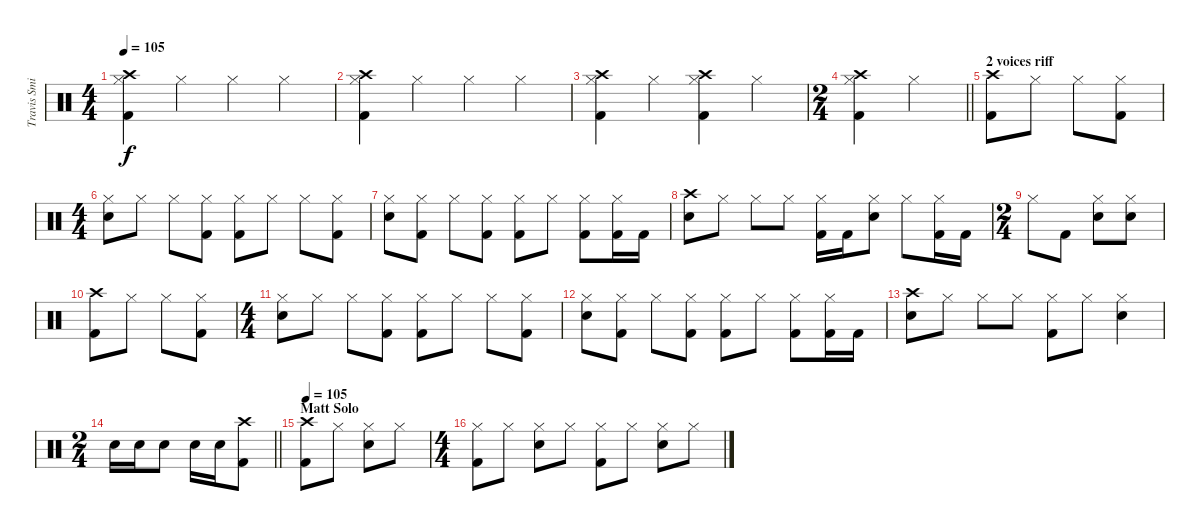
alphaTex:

\track ("Travis Smith (Drums)" "Travis Smi") {instrument percussion}
\staff {score}
\articulation defaults
\ts (4 4)
\tempo 105
\clef neutral
\ks c
("Crash high (hit)" "Kick (hit) 2" "Hi-Hat (closed)").4{dy f} "Hi-Hat (closed)".4 "Hi-Hat (closed)".4 "Hi-Hat (closed)".4 |
("Crash high (hit)" "Kick (hit) 2" "Hi-Hat (closed)").4 "Hi-Hat (closed)".4 "Hi-Hat (closed)".4 "Hi-Hat (closed)".4 |
("Crash high (hit)" "Kick (hit) 2" "Hi-Hat (closed)").4 "Hi-Hat (closed)".4 ("Crash high (hit)" "Kick (hit) 2" "Hi-Hat (closed)").4 "Hi-Hat (closed)".4 |
\ts (2 4)
\barLineRight lightlight
("Crash high (hit)" "Kick (hit) 2" "Hi-Hat (closed)").4 "Hi-Hat (closed)".4 |
\section ("" "2 voices riff")
("Crash high (hit)" "Kick (hit) 2").8 "Hi-Hat (closed)".8 "Hi-Hat (closed)".8 ("Hi-Hat (closed)" "Kick (hit) 2").8 |
\ts (4 4)
("Hi-Hat (closed)" "Electric Snare (hit)").8 "Hi-Hat (closed)".8 "Hi-Hat (closed)".8 ("Hi-Hat (closed)" "Kick (hit) 2").8 ("Hi-Hat (closed)" "Kick (hit) 2").8 "Hi-Hat (closed)".8 "Hi-Hat (closed)".8 ("Hi-Hat (closed)" "Kick (hit) 2").8 |
("Hi-Hat (closed)" "Electric Snare (hit)").8 ("Hi-Hat (closed)" "Kick (hit) 2").8 "Hi-Hat (closed)".8 ("Hi-Hat (closed)" "Kick (hit) 2").8 ("Hi-Hat (closed)" "Kick (hit) 2").8 "Hi-Hat (closed)".8 ("Hi-Hat (closed)" "Kick (hit) 2").8 ("Hi-Hat (closed)" "Kick (hit) 2").16 "Kick (hit) 2".16 |
("Crash high (hit)" "Electric Snare (hit)").8 "Hi-Hat (closed)".8 "Hi-Hat (closed)".8 "Hi-Hat (closed)".8 ("Hi-Hat (closed)" "Kick (hit) 2").16 "Kick (hit) 2".16 ("Hi-Hat (closed)" "Electric Snare (hit)").8 "Hi-Hat (closed)".8 ("Hi-Hat (closed)" "Kick (hit) 2").16 "Kick (hit) 2".16 |
\ts (2 4)
"Hi-Hat (closed)".8 "Kick (hit) 2".8 ("Hi-Hat (closed)" "Electric Snare (hit)").8 ("Hi-Hat (closed)" "Electric Snare (hit)").8 |
("Crash high (hit)" "Kick (hit) 2").8 "Hi-Hat (closed)".8 "Hi-Hat (closed)".8 ("Hi-Hat (closed)" "Kick (hit) 2").8 |
\ts (4 4)
("Hi-Hat (closed)" "Electric Snare (hit)").8 "Hi-Hat (closed)".8 "Hi-Hat (closed)".8 ("Hi-Hat (closed)" "Kick (hit) 2").8 ("Hi-Hat (closed)" "Kick (hit) 2").8 "Hi-Hat (closed)".8 "Hi-Hat (closed)".8 ("Hi-Hat (closed)" "Kick (hit) 2").8 |
("Hi-Hat (closed)" "Electric Snare (hit)").8 ("Hi-Hat (closed)" "Kick (hit) 2").8 "Hi-Hat (closed)".8 ("Hi-Hat (closed)" "Kick (hit) 2").8 ("Hi-Hat (closed)" "Kick (hit) 2").8 "Hi-Hat (closed)".8 ("Hi-Hat (closed)" "Kick (hit) 2").8 ("Hi-Hat (closed)" "Kick (hit) 2").16 "Kick (hit) 2".16 |
("Crash high (hit)" "Electric Snare (hit)").8 "Hi-Hat (closed)".8 "Hi-Hat (closed)".8 "Hi-Hat (closed)".8 ("Hi-Hat (closed)" "Kick (hit) 2").8 "Hi-Hat (closed)".8 ("Hi-Hat (closed)" "Electric Snare (hit)").4 |
\ts (2 4)
\barLineRight lightlight "Electric Snare (hit)".16 "Electric Snare (hit)".16 "Electric Snare (hit)".8 "Electric Snare (hit)".16 "Electric Snare (hit)".16
("Crash high (hit)" "Kick (hit) 2").8 |
\section ("" "Matt Solo")
\tempo 105
("Crash high (hit)" "Kick (hit) 2").8 "Hi-Hat (closed)".8 ("Hi-Hat (closed)" "Electric Snare (hit)").8 "Hi-Hat (closed)".8 |
\ts (4 4)
("Hi-Hat (closed)" "Kick (hit) 2").8 "Hi-Hat (closed)".8 ("Hi-Hat (closed)" "Electric Snare (hit)").8 "Hi-Hat (closed)".8 ("Hi-Hat (closed)" "Kick (hit) 2").8 "Hi-Hat (closed)".8 ("Hi-Hat (closed)" "Electric Snare (hit)").8 "Hi-Hat (closed)".8
